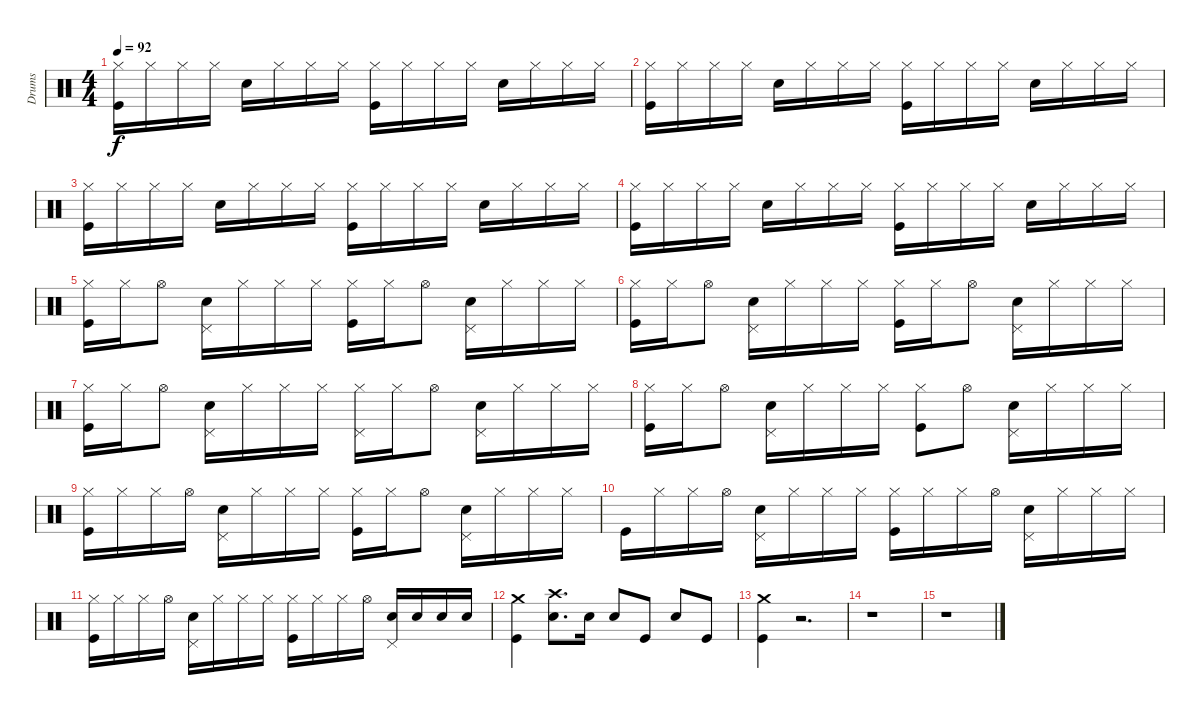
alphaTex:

\track ("Drums" "Drums") {instrument percussion}
\staff {score}
\articulation defaults
\ts (4 4)
\tempo 92
\clef neutral
\ks c
("Kick (hit)" "Hi-Hat (closed)").16{dy f} "Hi-Hat (closed)".16 "Hi-Hat (closed)".16 "Hi-Hat (closed)".16 "Electric Snare (hit)".16 "Hi-Hat (closed)".16 "Hi-Hat (closed)".16 "Hi-Hat (closed)".16 ("Kick (hit)" "Hi-Hat (closed)").16 "Hi-Hat (closed)".16 "Hi-Hat (closed)".16 "Hi-Hat (closed)".16 "Electric Snare (hit)".16 "Hi-Hat (closed)".16 "Hi-Hat (closed)".16 "Hi-Hat (closed)".16 |
("Kick (hit)" "Hi-Hat (closed)").16 "Hi-Hat (closed)".16 "Hi-Hat (closed)".16 "Hi-Hat (closed)".16 "Electric Snare (hit)".16 "Hi-Hat (closed)".16 "Hi-Hat (closed)".16 "Hi-Hat (closed)".16 ("Kick (hit)" "Hi-Hat (closed)").16 "Hi-Hat (closed)".16 "Hi-Hat (closed)".16 "Hi-Hat (closed)".16 "Electric Snare (hit)".16 "Hi-Hat (closed)".16 "Hi-Hat (closed)".16 "Hi-Hat (closed)".16 |
("Kick (hit)" "Hi-Hat (closed)").16 "Hi-Hat (closed)".16 "Hi-Hat (closed)".16 "Hi-Hat (closed)".16 "Electric Snare (hit)".16 "Hi-Hat (closed)".16 "Hi-Hat (closed)".16 "Hi-Hat (closed)".16 ("Kick (hit)" "Hi-Hat (closed)").16 "Hi-Hat (closed)".16 "Hi-Hat (closed)".16 "Hi-Hat (closed)".16 "Electric Snare (hit)".16 "Hi-Hat (closed)".16 "Hi-Hat (closed)".16 "Hi-Hat (closed)".16 |
("Kick (hit)" "Hi-Hat (closed)").16 "Hi-Hat (closed)".16 "Hi-Hat (closed)".16 "Hi-Hat (closed)".16 "Electric Snare (hit)".16 "Hi-Hat (closed)".16 "Hi-Hat (closed)".16 "Hi-Hat (closed)".16 ("Kick (hit)" "Hi-Hat (closed)").16 "Hi-Hat (closed)".16 "Hi-Hat (closed)".16 "Hi-Hat (closed)".16 "Electric Snare (hit)".16 "Hi-Hat (closed)".16 "Hi-Hat (closed)".16 "Hi-Hat (closed)".16 |
("Kick (hit)" "Hi-Hat (closed)").16 "Hi-Hat (closed)".16 "Hi-Hat (open)".8 ("Electric Snare (hit)" "Pedal Hi-Hat (hit)").16 "Hi-Hat (closed)".16 "Hi-Hat (closed)".16 "Hi-Hat (closed)".16 ("Kick (hit)" "Hi-Hat (closed)").16 "Hi-Hat (closed)".16 "Hi-Hat (open)".8 ("Electric Snare (hit)" "Pedal Hi-Hat (hit)").16 "Hi-Hat (closed)".16 "Hi-Hat (closed)".16 "Hi-Hat (closed)".16 |
("Kick (hit)" "Hi-Hat (closed)").16 "Hi-Hat (closed)".16 "Hi-Hat (open)".8 ("Electric Snare (hit)" "Pedal Hi-Hat (hit)").16 "Hi-Hat (closed)".16 "Hi-Hat (closed)".16 "Hi-Hat (closed)".16 ("Kick (hit)" "Hi-Hat (closed)").16 "Hi-Hat (closed)".16 "Hi-Hat (open)".8 ("Electric Snare (hit)" "Pedal Hi-Hat (hit)").16 "Hi-Hat (closed)".16 "Hi-Hat (closed)".16 "Hi-Hat (closed)".16 |
("Kick (hit)" "Hi-Hat (closed)").16 "Hi-Hat (closed)".16 "Hi-Hat (open)".8 ("Electric Snare (hit)" "Pedal Hi-Hat (hit)").16 "Hi-Hat (closed)".16 "Hi-Hat (closed)".16 "Hi-Hat (closed)".16 ("Pedal Hi-Hat (hit)" "Hi-Hat (closed)").16 "Hi-Hat (closed)".16 "Hi-Hat (open)".8 ("Electric Snare (hit)" "Pedal Hi-Hat (hit)").16 "Hi-Hat (closed)".16 "Hi-Hat (closed)".16 "Hi-Hat (closed)".16 |
("Kick (hit)" "Hi-Hat (closed)").16 "Hi-Hat (closed)".16 "Hi-Hat (open)".8 ("Electric Snare (hit)" "Pedal Hi-Hat (hit)").16 "Hi-Hat (closed)".16 "Hi-Hat (closed)".16 "Hi-Hat (closed)".16 ("Kick (hit)" "Hi-Hat (closed)").8 "Hi-Hat (open)".8 ("Electric Snare (hit)" "Pedal Hi-Hat (hit)").16 "Hi-Hat (closed)".16 "Hi-Hat (closed)".16 "Hi-Hat (closed)".16 |
("Kick (hit)" "Hi-Hat (closed)").16 "Hi-Hat (closed)".16 "Hi-Hat (closed)".16 "Hi-Hat (open)".16 ("Electric Snare (hit)" "Pedal Hi-Hat (hit)").16 "Hi-Hat (closed)".16 "Hi-Hat (closed)".16 "Hi-Hat (closed)".16 ("Kick (hit)" "Hi-Hat (closed)").16 "Hi-Hat (closed)".16 "Hi-Hat (open)".8 ("Electric Snare (hit)" "Pedal Hi-Hat (hit)").16 "Hi-Hat (closed)".16 "Hi-Hat (closed)".16 "Hi-Hat (closed)".16 |
"Kick (hit)".16 "Hi-Hat (closed)".16 "Hi-Hat (closed)".16 "Hi-Hat (open)".16 ("Electric Snare (hit)" "Pedal Hi-Hat (hit)").16 "Hi-Hat (closed)".16 "Hi-Hat (closed)".16 "Hi-Hat (closed)".16 ("Kick (hit)" "Hi-Hat (closed)").16 "Hi-Hat (closed)".16 "Hi-Hat (closed)".16 "Hi-Hat (open)".16 ("Electric Snare (hit)" "Pedal Hi-Hat (hit)").16 "Hi-Hat (closed)".16 "Hi-Hat (closed)".16 "Hi-Hat (closed)".16 |
("Kick (hit)" "Hi-Hat (closed)").16 "Hi-Hat (closed)".16 "Hi-Hat (closed)".16 "Hi-Hat (open)".16 ("Electric Snare (hit)" "Pedal Hi-Hat (hit)").16 "Hi-Hat (closed)".16 "Hi-Hat (closed)".16 "Hi-Hat (closed)".16 ("Kick (hit)" "Hi-Hat (closed)").16 "Hi-Hat (closed)".16 "Hi-Hat (closed)".16 "Hi-Hat (open)".16 ("Electric Snare (hit)" "Pedal Hi-Hat (hit)").16 "Electric Snare (hit)".16 "Electric Snare (hit)".16 "Electric Snare (hit)".16 |
("Kick (hit)" "Crash medium (hit)").4 ("Electric Snare (hit)" "Crash high (hit)").8{d} "Electric Snare (hit)".16 "Electric Snare (hit)".8 "Kick (hit)".8 "Electric Snare (hit)".8 "Kick (hit)".8 |
("Kick (hit)" "Crash medium (hit)").4 r.2{d} |
r.1 |
r.1
